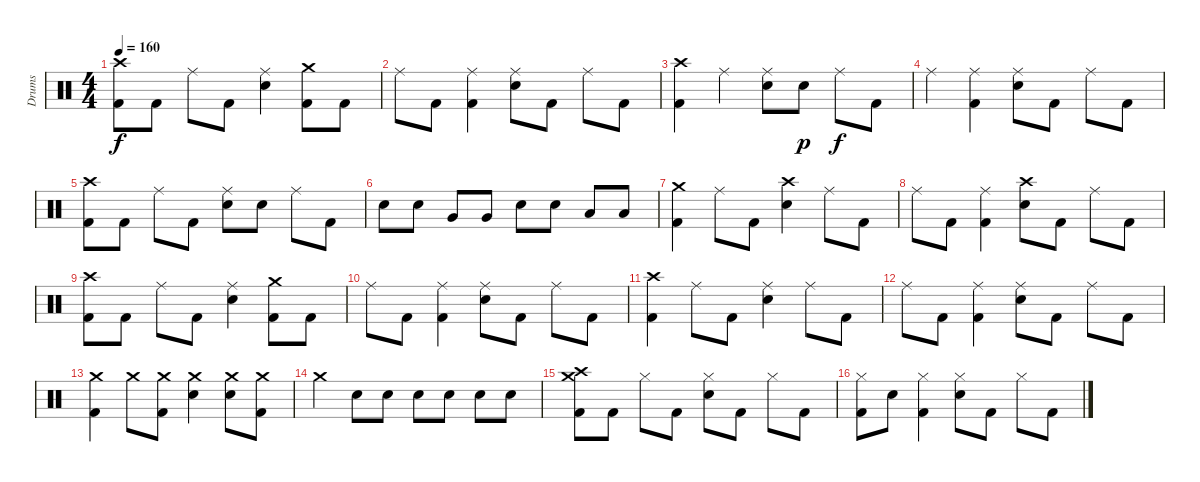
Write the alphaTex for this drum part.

\track ("Drums" "Drums") {instrument percussion}
\staff {score}
\articulation defaults
\ts (4 4)
\tempo 160
\clef neutral
\ks c
("Crash high (hit)" "Kick (hit) 2").8{dy f} "Kick (hit) 2".8 "Ride (middle)".8 "Kick (hit) 2".8 ("Ride (middle)" "Snare (hit) 2").4 ("Crash medium (hit)" "Kick (hit) 2").8 "Kick (hit) 2".8 |
"Ride (middle)".8 "Kick (hit) 2".8 ("Ride (middle)" "Kick (hit) 2").4 ("Ride (middle)" "Snare (hit) 2").8 "Kick (hit) 2".8 "Ride (middle)".8 "Kick (hit) 2".8 |
("Crash high (hit)" "Kick (hit) 2").4 "Ride (middle)".4 ("Ride (middle)" "Snare (hit) 2").8 "Snare (hit) 2".8{dy p} "Ride (middle)".8{dy f} "Kick (hit) 2".8 |
"Ride (middle)".4 ("Ride (middle)" "Kick (hit) 2").4 ("Ride (middle)" "Snare (hit) 2").8 "Kick (hit) 2".8 "Ride (middle)".8 "Kick (hit) 2".8 |
("Crash high (hit)" "Kick (hit) 2").8 "Kick (hit) 2".8 "Ride (middle)".8 "Kick (hit) 2".8 ("Ride (middle)" "Snare (hit) 2").8 "Snare (hit) 2".8 "Ride (middle)".8 "Kick (hit) 2".8 |
"Snare (hit) 2".8 "Snare (hit) 2".8 "Very Low Tom (hit)".8 "Very Low Tom (hit)".8 "Snare (hit) 2".8 "Snare (hit) 2".8 "Low Floor Tom (hit)".8 "Low Floor Tom (hit)".8 |
("Crash medium (hit)" "Kick (hit) 2").4 "Ride (middle)".8 "Kick (hit) 2".8 ("Crash high (hit)" "Snare (hit) 2").4 "Ride (middle)".8 "Kick (hit) 2".8 |
"Ride (middle)".8 "Kick (hit) 2".8 ("Ride (middle)" "Kick (hit) 2").4 ("Crash high (hit)" "Snare (hit) 2").8 "Kick (hit) 2".8 "Ride (middle)".8 "Kick (hit) 2".8 |
("Crash high (hit)" "Kick (hit) 2").8 "Kick (hit) 2".8 "Ride (middle)".8 "Kick (hit) 2".8 ("Ride (middle)" "Snare (hit) 2").4 ("Crash medium (hit)" "Kick (hit) 2").8 "Kick (hit) 2".8 |
"Ride (middle)".8 "Kick (hit) 2".8 ("Ride (middle)" "Kick (hit) 2").4 ("Ride (middle)" "Snare (hit) 2").8 "Kick (hit) 2".8 "Ride (middle)".8 "Kick (hit) 2".8 |
("Crash high (hit)" "Kick (hit) 2").4 "Ride (middle)".8 "Kick (hit) 2".8 ("Ride (middle)" "Snare (hit) 2").4 "Ride (middle)".8 "Kick (hit) 2".8 |
"Ride (middle)".8 "Kick (hit) 2".8 ("Ride (middle)" "Kick (hit) 2").4 ("Ride (middle)" "Snare (hit) 2").8 "Kick (hit) 2".8 "Ride (middle)".8 "Kick (hit) 2".8 |
("Crash medium (hit)" "Kick (hit) 2").4 "Crash medium (hit)".8 ("Crash medium (hit)" "Kick (hit) 2").8 ("Crash medium (hit)" "Snare (hit) 2").4 ("Crash medium (hit)" "Snare (hit) 2").8 ("Crash medium (hit)" "Kick (hit) 2").8 |
"Crash medium (hit)".4 "Snare (hit) 2".8 "Snare (hit) 2".8 "Snare (hit) 2".8 "Snare (hit) 2".8 "Snare (hit) 2".8 "Snare (hit) 2".8 |
("Crash medium (hit)" "Crash high (hit)" "Kick (hit) 2").8 "Kick (hit) 2".8 "Hi-Hat (closed)".8 "Kick (hit) 2".8 ("Hi-Hat (closed)" "Snare (hit) 2").8 "Kick (hit) 2".8 "Hi-Hat (closed)".8 "Kick (hit) 2".8 |
("Hi-Hat (closed)" "Kick (hit) 2").8 "Snare (hit) 2".8 ("Hi-Hat (closed)" "Kick (hit) 2").4 ("Hi-Hat (closed)" "Snare (hit) 2").8 "Kick (hit) 2".8 "Hi-Hat (closed)".8 "Kick (hit) 2".8
